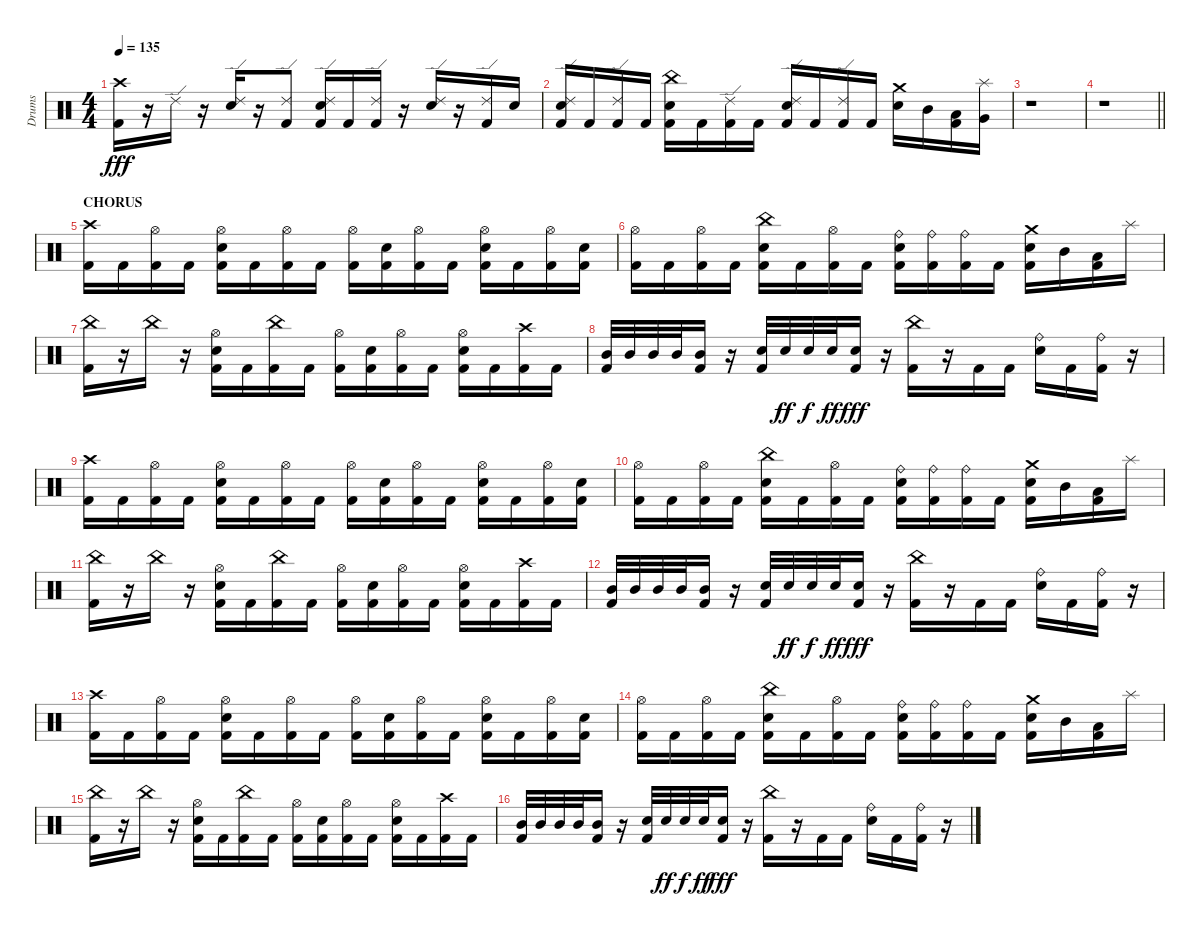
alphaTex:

\track ("Drums" "Drums") {instrument percussion}
\staff {score}
\articulation defaults
\ts (4 4)
\tempo 135
\clef neutral
\ks c
("Kick (hit) 2" "Crash high (hit)").16{dy fff} r.16 "Ride (edge) 2".16 r.16 ("Snare (hit) 2" "Ride (edge) 2").16 r.16 ("Kick (hit) 2" "Ride (edge) 2").8 ("Kick (hit) 2" "Snare (hit) 2" "Ride (edge) 2").16 "Kick (hit) 2".16 ("Kick (hit) 2" "Ride (edge) 2").16 r.16 ("Snare (hit) 2" "Ride (edge) 2").16 r.16 ("Kick (hit) 2" "Ride (edge) 2").16 "Snare (hit) 2".16 |
("Kick (hit) 2" "Snare (hit) 2" "Ride (edge) 2").16 "Kick (hit) 2".16 ("Kick (hit) 2" "Ride (edge) 2").16 "Kick (hit) 2".16 ("Kick (hit) 2" "Snare (hit) 2" "China (hit)").16 "Kick (hit) 2".16 ("Kick (hit) 2" "Ride (edge) 2").16 "Kick (hit) 2".16 ("Kick (hit) 2" "Snare (hit) 2" "Ride (edge) 2").16 "Kick (hit) 2".16 ("Kick (hit) 2" "Ride (edge) 2").16 "Kick (hit) 2".16 ("Snare (hit) 2" "Crash medium (hit)").16 "Mid Tom (hit)".16 ("Kick (hit) 2" "Low Tom (hit)").16 ("Very Low Tom (hit)" "Splash (hit)").16 |
r.1 |
\barLineRight lightlight
r.1 |
\section ("" "CHORUS")
("Kick (hit) 2" "Crash high (hit)").16 "Kick (hit) 2".16 ("Kick (hit) 2" "Hi-Hat (open)").16 "Kick (hit) 2".16 ("Kick (hit) 2" "Snare (hit) 2" "Hi-Hat (open)").16 "Kick (hit) 2".16 ("Kick (hit) 2" "Hi-Hat (open)").16 "Kick (hit) 2".16 ("Kick (hit) 2" "Hi-Hat (open)").16 ("Kick (hit) 2" "Snare (hit) 2").16 ("Kick (hit) 2" "Hi-Hat (open)").16 "Kick (hit) 2".16 ("Kick (hit) 2" "Snare (hit) 2" "Hi-Hat (open)").16 "Kick (hit) 2".16 ("Kick (hit) 2" "Hi-Hat (open)").16 ("Kick (hit) 2" "Snare (hit) 2").16 |
("Kick (hit) 2" "Hi-Hat (open)").16 "Kick (hit) 2".16 ("Kick (hit) 2" "Hi-Hat (open)").16 "Kick (hit) 2".16 ("Kick (hit) 2" "Snare (hit) 2" "China (hit)").16 "Kick (hit) 2".16 ("Kick (hit) 2" "Hi-Hat (open)").16 "Kick (hit) 2".16 ("Kick (hit) 2" "Snare (hit) 2" "Ride (bell)").16 ("Kick (hit) 2" "Ride (bell)").16 ("Kick (hit) 2" "Ride (bell)").16 "Kick (hit) 2".16 ("Kick (hit) 2" "Snare (hit) 2" "Crash medium (hit)").16 "Mid Tom (hit)".16 ("Kick (hit) 2" "Low Tom (hit)").16 "Splash (hit)".16 |
("Kick (hit) 2" "China (hit)").16 r.16 "China (hit)".16 r.16 ("Kick (hit) 2" "Snare (hit) 2" "Hi-Hat (open)").16 "Kick (hit) 2".16 ("Kick (hit) 2" "China (hit)").16 "Kick (hit) 2".16 ("Kick (hit) 2" "Hi-Hat (open)").16 ("Kick (hit) 2" "Snare (hit) 2").16 ("Kick (hit) 2" "Hi-Hat (open)").16 "Kick (hit) 2".16 ("Kick (hit) 2" "Snare (hit) 2" "Hi-Hat (open)").16 "Kick (hit) 2".16 ("Kick (hit) 2" "Crash high (hit)").16 "Kick (hit) 2".16 |
("Kick (hit) 2" "Mid Tom (hit)").32 "Mid Tom (hit)".32 "Mid Tom (hit)".32 "Mid Tom (hit)".32 ("Kick (hit) 2" "Mid Tom (hit)").16 r.16 ("Kick (hit) 2" "Snare (hit) 2").32 "Snare (hit) 2".32{dy ff} "Snare (hit) 2".32{dy f} "Snare (hit) 2".32{dy ff} ("Kick (hit) 2" "Snare (hit) 2").16{dy fff} r.16 ("Kick (hit) 2" "China (hit)").16 r.16 "Kick (hit) 2".16 "Kick (hit) 2".16 ("Snare (hit) 2" "Ride (bell)").16 "Kick (hit) 2".16 ("Kick (hit) 2" "Ride (bell)").16 r.16 |
("Kick (hit) 2" "Crash high (hit)").16 "Kick (hit) 2".16 ("Kick (hit) 2" "Hi-Hat (open)").16 "Kick (hit) 2".16 ("Kick (hit) 2" "Snare (hit) 2" "Hi-Hat (open)").16 "Kick (hit) 2".16 ("Kick (hit) 2" "Hi-Hat (open)").16 "Kick (hit) 2".16 ("Kick (hit) 2" "Hi-Hat (open)").16 ("Kick (hit) 2" "Snare (hit) 2").16 ("Kick (hit) 2" "Hi-Hat (open)").16 "Kick (hit) 2".16 ("Kick (hit) 2" "Snare (hit) 2" "Hi-Hat (open)").16 "Kick (hit) 2".16 ("Kick (hit) 2" "Hi-Hat (open)").16 ("Kick (hit) 2" "Snare (hit) 2").16 |
("Kick (hit) 2" "Hi-Hat (open)").16 "Kick (hit) 2".16 ("Kick (hit) 2" "Hi-Hat (open)").16 "Kick (hit) 2".16 ("Kick (hit) 2" "Snare (hit) 2" "China (hit)").16 "Kick (hit) 2".16 ("Kick (hit) 2" "Hi-Hat (open)").16 "Kick (hit) 2".16 ("Kick (hit) 2" "Snare (hit) 2" "Ride (bell)").16 ("Kick (hit) 2" "Ride (bell)").16 ("Kick (hit) 2" "Ride (bell)").16 "Kick (hit) 2".16 ("Kick (hit) 2" "Snare (hit) 2" "Crash medium (hit)").16 "Mid Tom (hit)".16 ("Kick (hit) 2" "Low Tom (hit)").16 "Splash (hit)".16 |
("Kick (hit) 2" "China (hit)").16 r.16 "China (hit)".16 r.16 ("Kick (hit) 2" "Snare (hit) 2" "Hi-Hat (open)").16 "Kick (hit) 2".16 ("Kick (hit) 2" "China (hit)").16 "Kick (hit) 2".16 ("Kick (hit) 2" "Hi-Hat (open)").16 ("Kick (hit) 2" "Snare (hit) 2").16 ("Kick (hit) 2" "Hi-Hat (open)").16 "Kick (hit) 2".16 ("Kick (hit) 2" "Snare (hit) 2" "Hi-Hat (open)").16 "Kick (hit) 2".16 ("Kick (hit) 2" "Crash high (hit)").16 "Kick (hit) 2".16 |
("Kick (hit) 2" "Mid Tom (hit)").32 "Mid Tom (hit)".32 "Mid Tom (hit)".32 "Mid Tom (hit)".32 ("Kick (hit) 2" "Mid Tom (hit)").16 r.16 ("Kick (hit) 2" "Snare (hit) 2").32 "Snare (hit) 2".32{dy ff} "Snare (hit) 2".32{dy f} "Snare (hit) 2".32{dy ff} ("Kick (hit) 2" "Snare (hit) 2").16{dy fff} r.16 ("Kick (hit) 2" "China (hit)").16 r.16 "Kick (hit) 2".16 "Kick (hit) 2".16 ("Snare (hit) 2" "Ride (bell)").16 "Kick (hit) 2".16 ("Kick (hit) 2" "Ride (bell)").16 r.16 |
("Kick (hit) 2" "Crash high (hit)").16 "Kick (hit) 2".16 ("Kick (hit) 2" "Hi-Hat (open)").16 "Kick (hit) 2".16 ("Kick (hit) 2" "Snare (hit) 2" "Hi-Hat (open)").16 "Kick (hit) 2".16 ("Kick (hit) 2" "Hi-Hat (open)").16 "Kick (hit) 2".16 ("Kick (hit) 2" "Hi-Hat (open)").16 ("Kick (hit) 2" "Snare (hit) 2").16 ("Kick (hit) 2" "Hi-Hat (open)").16 "Kick (hit) 2".16 ("Kick (hit) 2" "Snare (hit) 2" "Hi-Hat (open)").16 "Kick (hit) 2".16 ("Kick (hit) 2" "Hi-Hat (open)").16 ("Kick (hit) 2" "Snare (hit) 2").16 |
("Kick (hit) 2" "Hi-Hat (open)").16 "Kick (hit) 2".16 ("Kick (hit) 2" "Hi-Hat (open)").16 "Kick (hit) 2".16 ("Kick (hit) 2" "Snare (hit) 2" "China (hit)").16 "Kick (hit) 2".16 ("Kick (hit) 2" "Hi-Hat (open)").16 "Kick (hit) 2".16 ("Kick (hit) 2" "Snare (hit) 2" "Ride (bell)").16 ("Kick (hit) 2" "Ride (bell)").16 ("Kick (hit) 2" "Ride (bell)").16 "Kick (hit) 2".16 ("Kick (hit) 2" "Snare (hit) 2" "Crash medium (hit)").16 "Mid Tom (hit)".16 ("Kick (hit) 2" "Low Tom (hit)").16 "Splash (hit)".16 |
("Kick (hit) 2" "China (hit)").16 r.16 "China (hit)".16 r.16 ("Kick (hit) 2" "Snare (hit) 2" "Hi-Hat (open)").16 "Kick (hit) 2".16 ("Kick (hit) 2" "China (hit)").16 "Kick (hit) 2".16 ("Kick (hit) 2" "Hi-Hat (open)").16 ("Kick (hit) 2" "Snare (hit) 2").16 ("Kick (hit) 2" "Hi-Hat (open)").16 "Kick (hit) 2".16 ("Kick (hit) 2" "Snare (hit) 2" "Hi-Hat (open)").16 "Kick (hit) 2".16 ("Kick (hit) 2" "Crash high (hit)").16 "Kick (hit) 2".16 |
("Kick (hit) 2" "Mid Tom (hit)").32 "Mid Tom (hit)".32 "Mid Tom (hit)".32 "Mid Tom (hit)".32 ("Kick (hit) 2" "Mid Tom (hit)").16 r.16 ("Kick (hit) 2" "Snare (hit) 2").32 "Snare (hit) 2".32{dy ff} "Snare (hit) 2".32{dy f} "Snare (hit) 2".32{dy ff} ("Kick (hit) 2" "Snare (hit) 2").16{dy fff} r.16 ("Kick (hit) 2" "China (hit)").16 r.16 "Kick (hit) 2".16 "Kick (hit) 2".16 ("Snare (hit) 2" "Ride (bell)").16 "Kick (hit) 2".16 ("Kick (hit) 2" "Ride (bell)").16 r.16
